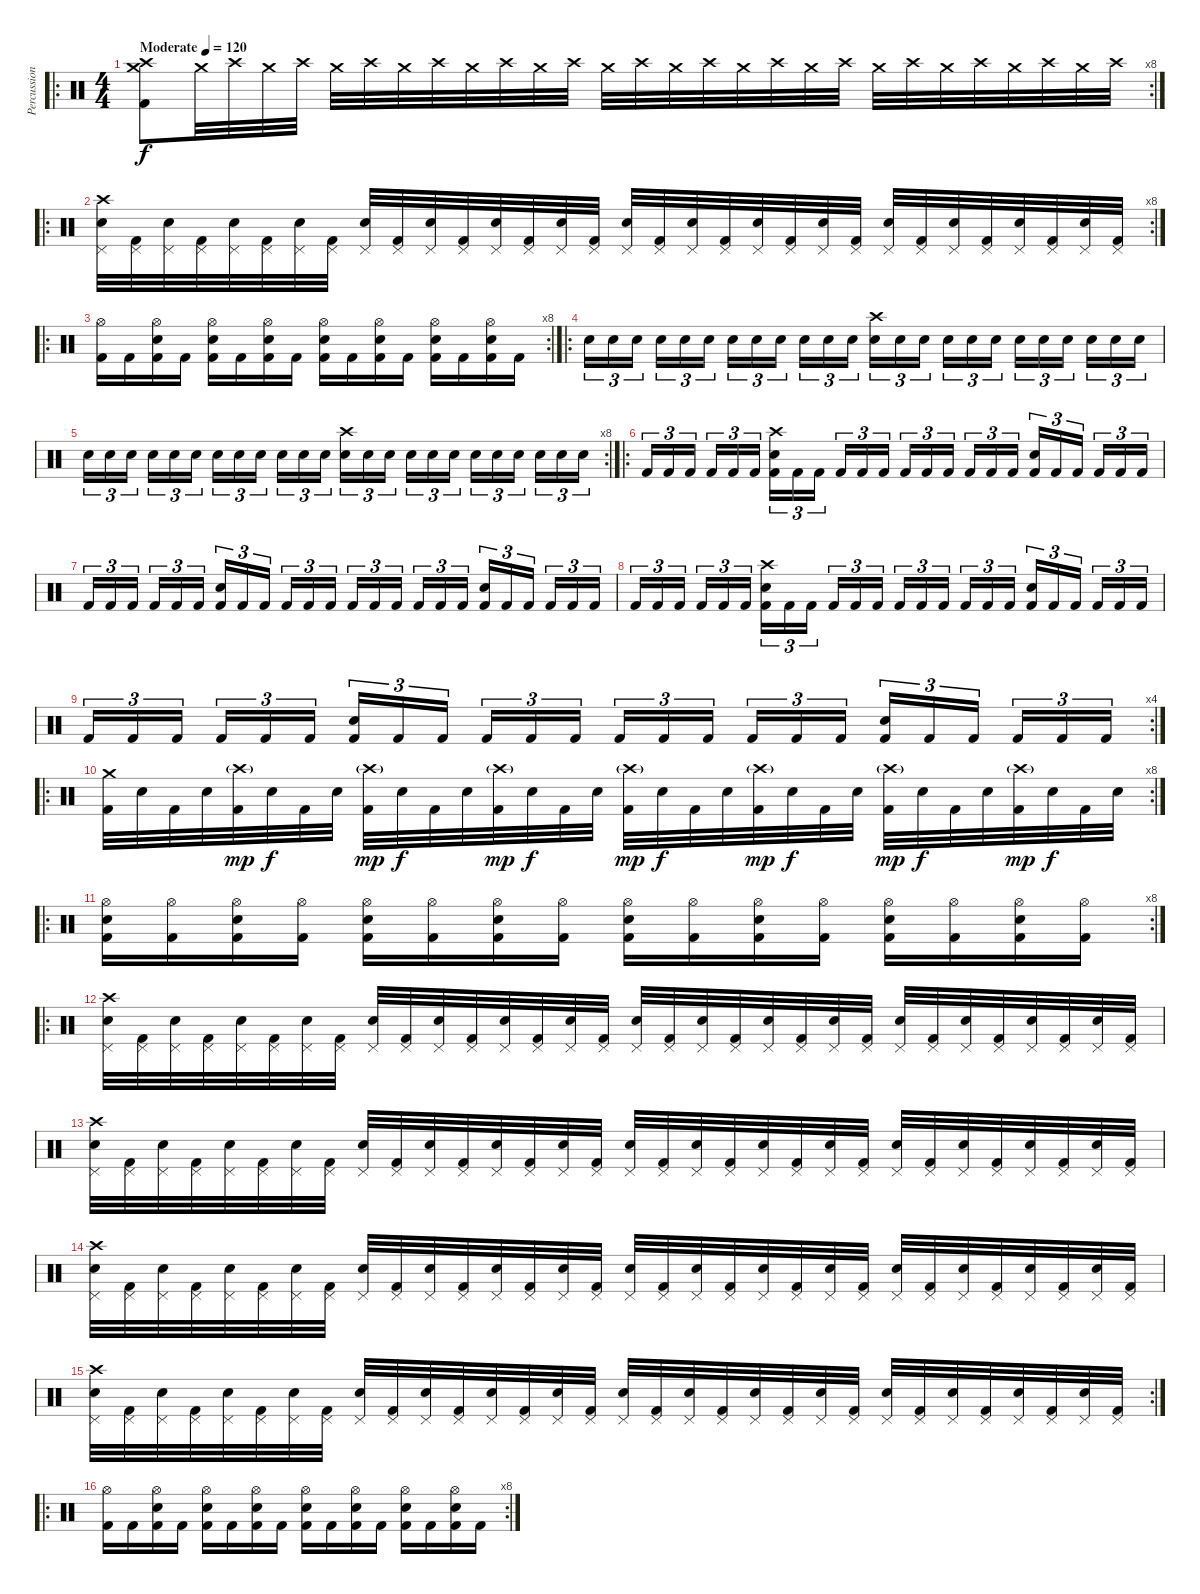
\track ("Percussions" "Percussion") {instrument percussion}
\staff {score}
\articulation defaults
\ro
\rc 8
\ts (4 4)
\tempo (120 "Moderate")
\clef neutral
\ks c
("Crash medium (hit)" "Crash high (hit)" "Kick (hit) 2").8{dy f} "Crash medium (hit)".32 "Crash high (hit)".32 "Crash medium (hit)".32 "Crash high (hit)".32 "Crash medium (hit)".32 "Crash high (hit)".32 "Crash medium (hit)".32 "Crash high (hit)".32 "Crash medium (hit)".32 "Crash high (hit)".32 "Crash medium (hit)".32 "Crash high (hit)".32 "Crash medium (hit)".32 "Crash high (hit)".32 "Crash medium (hit)".32 "Crash high (hit)".32 "Crash medium (hit)".32 "Crash high (hit)".32 "Crash medium (hit)".32 "Crash high (hit)".32 "Crash medium (hit)".32 "Crash high (hit)".32 "Crash medium (hit)".32 "Crash high (hit)".32 "Crash medium (hit)".32 "Crash high (hit)".32 "Crash medium (hit)".32 "Crash high (hit)".32 |
\ro
\rc 8
("Pedal Hi-Hat (hit)" "Crash high (hit)" "Electric Snare (hit)").32 ("Pedal Hi-Hat (hit)" "Kick (hit) 2").32 ("Pedal Hi-Hat (hit)" "Electric Snare (hit)").32 ("Pedal Hi-Hat (hit)" "Kick (hit) 2").32 ("Pedal Hi-Hat (hit)" "Electric Snare (hit)").32 ("Pedal Hi-Hat (hit)" "Kick (hit) 2").32 ("Pedal Hi-Hat (hit)" "Electric Snare (hit)").32 ("Pedal Hi-Hat (hit)" "Kick (hit) 2").32 ("Pedal Hi-Hat (hit)" "Electric Snare (hit)").32 ("Pedal Hi-Hat (hit)" "Kick (hit) 2").32 ("Pedal Hi-Hat (hit)" "Electric Snare (hit)").32 ("Pedal Hi-Hat (hit)" "Kick (hit) 2").32 ("Pedal Hi-Hat (hit)" "Electric Snare (hit)").32 ("Pedal Hi-Hat (hit)" "Kick (hit) 2").32 ("Pedal Hi-Hat (hit)" "Electric Snare (hit)").32 ("Pedal Hi-Hat (hit)" "Kick (hit) 2").32 ("Pedal Hi-Hat (hit)" "Electric Snare (hit)").32 ("Pedal Hi-Hat (hit)" "Kick (hit) 2").32 ("Pedal Hi-Hat (hit)" "Electric Snare (hit)").32 ("Pedal Hi-Hat (hit)" "Kick (hit) 2").32 ("Pedal Hi-Hat (hit)" "Electric Snare (hit)").32 ("Pedal Hi-Hat (hit)" "Kick (hit) 2").32 ("Pedal Hi-Hat (hit)" "Electric Snare (hit)").32 ("Pedal Hi-Hat (hit)" "Kick (hit) 2").32 ("Pedal Hi-Hat (hit)" "Electric Snare (hit)").32 ("Pedal Hi-Hat (hit)" "Kick (hit) 2").32 ("Pedal Hi-Hat (hit)" "Electric Snare (hit)").32 ("Pedal Hi-Hat (hit)" "Kick (hit) 2").32 ("Pedal Hi-Hat (hit)" "Electric Snare (hit)").32 ("Pedal Hi-Hat (hit)" "Kick (hit) 2").32 ("Pedal Hi-Hat (hit)" "Electric Snare (hit)").32 ("Pedal Hi-Hat (hit)" "Kick (hit) 2").32 |
\ro
\rc 8
("Hi-Hat (open)" "Kick (hit) 2").16 "Kick (hit) 2".16 ("Hi-Hat (open)" "Electric Snare (hit)" "Kick (hit) 2").16 "Kick (hit) 2".16 ("Hi-Hat (open)" "Electric Snare (hit)" "Kick (hit) 2").16 "Kick (hit) 2".16 ("Hi-Hat (open)" "Electric Snare (hit)" "Kick (hit) 2").16 "Kick (hit) 2".16 ("Hi-Hat (open)" "Electric Snare (hit)" "Kick (hit) 2").16 "Kick (hit) 2".16 ("Hi-Hat (open)" "Electric Snare (hit)" "Kick (hit) 2").16 "Kick (hit) 2".16 ("Hi-Hat (open)" "Electric Snare (hit)" "Kick (hit) 2").16 "Kick (hit) 2".16 ("Hi-Hat (open)" "Electric Snare (hit)" "Kick (hit) 2").16 "Kick (hit) 2".16 |
\ro "Electric Snare (hit)".16{tu (3 2)} "Snare (hit) 2".16{tu (3 2)} "Electric Snare (hit)".16{tu (3 2) beam splitsecondary} "Snare (hit) 2".16{tu (3 2)} "Electric Snare (hit)".16{tu (3 2)} "Snare (hit) 2".16{tu (3 2)} "Electric Snare (hit)".16{tu (3 2)} "Snare (hit) 2".16{tu (3 2)} "Electric Snare (hit)".16{tu (3 2) beam splitsecondary} "Snare (hit) 2".16{tu (3 2)} "Electric Snare (hit)".16{tu (3 2)} "Snare (hit) 2".16{tu (3 2)}
("Crash high (hit)" "Electric Snare (hit)").16{tu (3 2)} "Snare (hit) 2".16{tu (3 2)} "Electric Snare (hit)".16{tu (3 2) beam splitsecondary} "Snare (hit) 2".16{tu (3 2)} "Electric Snare (hit)".16{tu (3 2)} "Snare (hit) 2".16{tu (3 2)} "Electric Snare (hit)".16{tu (3 2)} "Snare (hit) 2".16{tu (3 2)} "Electric Snare (hit)".16{tu (3 2) beam splitsecondary} "Snare (hit) 2".16{tu (3 2)} "Electric Snare (hit)".16{tu (3 2)} "Snare (hit) 2".16{tu (3 2)} |
\rc 8 "Electric Snare (hit)".16{tu (3 2)} "Snare (hit) 2".16{tu (3 2)} "Electric Snare (hit)".16{tu (3 2) beam splitsecondary} "Snare (hit) 2".16{tu (3 2)} "Electric Snare (hit)".16{tu (3 2)} "Snare (hit) 2".16{tu (3 2)} "Electric Snare (hit)".16{tu (3 2)} "Snare (hit) 2".16{tu (3 2)} "Electric Snare (hit)".16{tu (3 2) beam splitsecondary} "Snare (hit) 2".16{tu (3 2)} "Electric Snare (hit)".16{tu (3 2)} "Snare (hit) 2".16{tu (3 2)}
("Crash high (hit)" "Electric Snare (hit)").16{tu (3 2)} "Snare (hit) 2".16{tu (3 2)} "Electric Snare (hit)".16{tu (3 2) beam splitsecondary} "Snare (hit) 2".16{tu (3 2)} "Electric Snare (hit)".16{tu (3 2)} "Snare (hit) 2".16{tu (3 2)} "Electric Snare (hit)".16{tu (3 2)} "Snare (hit) 2".16{tu (3 2)} "Electric Snare (hit)".16{tu (3 2) beam splitsecondary} "Snare (hit) 2".16{tu (3 2)} "Electric Snare (hit)".16{tu (3 2)} "Snare (hit) 2".16{tu (3 2)} |
\ro "Kick (hit) 2".16{tu (3 2)} "Kick (hit) 2".16{tu (3 2)} "Kick (hit) 2".16{tu (3 2) beam splitsecondary} "Kick (hit) 2".16{tu (3 2)} "Kick (hit) 2".16{tu (3 2)} "Kick (hit) 2".16{tu (3 2)}
("Snare (hit) 2" "Crash high (hit)" "Kick (hit) 2").16{tu (3 2)} "Kick (hit) 2".16{tu (3 2)} "Kick (hit) 2".16{tu (3 2) beam splitsecondary} "Kick (hit) 2".16{tu (3 2)} "Kick (hit) 2".16{tu (3 2)} "Kick (hit) 2".16{tu (3 2)} "Kick (hit) 2".16{tu (3 2)} "Kick (hit) 2".16{tu (3 2)} "Kick (hit) 2".16{tu (3 2) beam splitsecondary} "Kick (hit) 2".16{tu (3 2)} "Kick (hit) 2".16{tu (3 2)} "Kick (hit) 2".16{tu (3 2)} ("Snare (hit) 2" "Kick (hit) 2").16{tu (3 2)} "Kick (hit) 2".16{tu (3 2)} "Kick (hit) 2".16{tu (3 2) beam splitsecondary} "Kick (hit) 2".16{tu (3 2)} "Kick (hit) 2".16{tu (3 2)} "Kick (hit) 2".16{tu (3 2)} |
"Kick (hit) 2".16{tu (3 2)} "Kick (hit) 2".16{tu (3 2)} "Kick (hit) 2".16{tu (3 2) beam splitsecondary} "Kick (hit) 2".16{tu (3 2)} "Kick (hit) 2".16{tu (3 2)} "Kick (hit) 2".16{tu (3 2)} ("Snare (hit) 2" "Kick (hit) 2").16{tu (3 2)} "Kick (hit) 2".16{tu (3 2)} "Kick (hit) 2".16{tu (3 2) beam splitsecondary} "Kick (hit) 2".16{tu (3 2)} "Kick (hit) 2".16{tu (3 2)} "Kick (hit) 2".16{tu (3 2)} "Kick (hit) 2".16{tu (3 2)} "Kick (hit) 2".16{tu (3 2)} "Kick (hit) 2".16{tu (3 2) beam splitsecondary} "Kick (hit) 2".16{tu (3 2)} "Kick (hit) 2".16{tu (3 2)} "Kick (hit) 2".16{tu (3 2)} ("Snare (hit) 2" "Kick (hit) 2").16{tu (3 2)} "Kick (hit) 2".16{tu (3 2)} "Kick (hit) 2".16{tu (3 2) beam splitsecondary} "Kick (hit) 2".16{tu (3 2)} "Kick (hit) 2".16{tu (3 2)} "Kick (hit) 2".16{tu (3 2)} |
"Kick (hit) 2".16{tu (3 2)} "Kick (hit) 2".16{tu (3 2)} "Kick (hit) 2".16{tu (3 2) beam splitsecondary} "Kick (hit) 2".16{tu (3 2)} "Kick (hit) 2".16{tu (3 2)} "Kick (hit) 2".16{tu (3 2)} ("Snare (hit) 2" "Crash high (hit)" "Kick (hit) 2").16{tu (3 2)} "Kick (hit) 2".16{tu (3 2)} "Kick (hit) 2".16{tu (3 2) beam splitsecondary} "Kick (hit) 2".16{tu (3 2)} "Kick (hit) 2".16{tu (3 2)} "Kick (hit) 2".16{tu (3 2)} "Kick (hit) 2".16{tu (3 2)} "Kick (hit) 2".16{tu (3 2)} "Kick (hit) 2".16{tu (3 2) beam splitsecondary} "Kick (hit) 2".16{tu (3 2)} "Kick (hit) 2".16{tu (3 2)} "Kick (hit) 2".16{tu (3 2)} ("Snare (hit) 2" "Kick (hit) 2").16{tu (3 2)} "Kick (hit) 2".16{tu (3 2)} "Kick (hit) 2".16{tu (3 2) beam splitsecondary} "Kick (hit) 2".16{tu (3 2)} "Kick (hit) 2".16{tu (3 2)} "Kick (hit) 2".16{tu (3 2)} |
\rc 4 "Kick (hit) 2".16{tu (3 2)} "Kick (hit) 2".16{tu (3 2)} "Kick (hit) 2".16{tu (3 2) beam splitsecondary} "Kick (hit) 2".16{tu (3 2)} "Kick (hit) 2".16{tu (3 2)} "Kick (hit) 2".16{tu (3 2)}
("Snare (hit) 2" "Kick (hit) 2").16{tu (3 2)} "Kick (hit) 2".16{tu (3 2)} "Kick (hit) 2".16{tu (3 2) beam splitsecondary} "Kick (hit) 2".16{tu (3 2)} "Kick (hit) 2".16{tu (3 2)} "Kick (hit) 2".16{tu (3 2)} "Kick (hit) 2".16{tu (3 2)} "Kick (hit) 2".16{tu (3 2)} "Kick (hit) 2".16{tu (3 2) beam splitsecondary} "Kick (hit) 2".16{tu (3 2)} "Kick (hit) 2".16{tu (3 2)} "Kick (hit) 2".16{tu (3 2)} ("Snare (hit) 2" "Kick (hit) 2").16{tu (3 2)} "Kick (hit) 2".16{tu (3 2)} "Kick (hit) 2".16{tu (3 2) beam splitsecondary} "Kick (hit) 2".16{tu (3 2)} "Kick (hit) 2".16{tu (3 2)} "Kick (hit) 2".16{tu (3 2)} |
\ro
\rc 8
("Crash medium (hit)" "Kick (hit) 2").32 "Electric Snare (hit)".32 "Kick (hit) 2".32 "Electric Snare (hit)".32 ("Crash high (hit)"{g} "Kick (hit) 2").32{dy mp} "Electric Snare (hit)".32{dy f} "Kick (hit) 2".32 "Electric Snare (hit)".32 ("Crash high (hit)"{g} "Kick (hit) 2").32{dy mp} "Electric Snare (hit)".32{dy f} "Kick (hit) 2".32 "Electric Snare (hit)".32 ("Crash high (hit)"{g} "Kick (hit) 2").32{dy mp} "Electric Snare (hit)".32{dy f} "Kick (hit) 2".32 "Electric Snare (hit)".32 ("Crash high (hit)"{g} "Kick (hit) 2").32{dy mp} "Electric Snare (hit)".32{dy f} "Kick (hit) 2".32 "Electric Snare (hit)".32 ("Crash high (hit)"{g} "Kick (hit) 2").32{dy mp} "Electric Snare (hit)".32{dy f} "Kick (hit) 2".32 "Electric Snare (hit)".32 ("Crash high (hit)"{g} "Kick (hit) 2").32{dy mp} "Electric Snare (hit)".32{dy f} "Kick (hit) 2".32 "Electric Snare (hit)".32 ("Crash high (hit)"{g} "Kick (hit) 2").32{dy mp} "Electric Snare (hit)".32{dy f} "Kick (hit) 2".32 "Electric Snare (hit)".32 |
\ro
\rc 8
("Hi-Hat (open)" "Snare (hit) 2" "Kick (hit) 2").16 ("Hi-Hat (open)" "Kick (hit) 2").16 ("Hi-Hat (open)" "Snare (hit) 2" "Kick (hit) 2").16 ("Hi-Hat (open)" "Kick (hit) 2").16 ("Hi-Hat (open)" "Snare (hit) 2" "Kick (hit) 2").16 ("Hi-Hat (open)" "Kick (hit) 2").16 ("Hi-Hat (open)" "Snare (hit) 2" "Kick (hit) 2").16 ("Hi-Hat (open)" "Kick (hit) 2").16 ("Hi-Hat (open)" "Snare (hit) 2" "Kick (hit) 2").16 ("Hi-Hat (open)" "Kick (hit) 2").16 ("Hi-Hat (open)" "Snare (hit) 2" "Kick (hit) 2").16 ("Hi-Hat (open)" "Kick (hit) 2").16 ("Hi-Hat (open)" "Snare (hit) 2" "Kick (hit) 2").16 ("Hi-Hat (open)" "Kick (hit) 2").16 ("Hi-Hat (open)" "Snare (hit) 2" "Kick (hit) 2").16 ("Hi-Hat (open)" "Kick (hit) 2").16 |
\ro
("Pedal Hi-Hat (hit)" "Crash high (hit)" "Electric Snare (hit)").32 ("Pedal Hi-Hat (hit)" "Kick (hit) 2").32 ("Pedal Hi-Hat (hit)" "Electric Snare (hit)").32 ("Pedal Hi-Hat (hit)" "Kick (hit) 2").32 ("Pedal Hi-Hat (hit)" "Electric Snare (hit)").32 ("Pedal Hi-Hat (hit)" "Kick (hit) 2").32 ("Pedal Hi-Hat (hit)" "Electric Snare (hit)").32 ("Pedal Hi-Hat (hit)" "Kick (hit) 2").32 ("Pedal Hi-Hat (hit)" "Electric Snare (hit)").32 ("Pedal Hi-Hat (hit)" "Kick (hit) 2").32 ("Pedal Hi-Hat (hit)" "Electric Snare (hit)").32 ("Pedal Hi-Hat (hit)" "Kick (hit) 2").32 ("Pedal Hi-Hat (hit)" "Electric Snare (hit)").32 ("Pedal Hi-Hat (hit)" "Kick (hit) 2").32 ("Pedal Hi-Hat (hit)" "Electric Snare (hit)").32 ("Pedal Hi-Hat (hit)" "Kick (hit) 2").32 ("Pedal Hi-Hat (hit)" "Electric Snare (hit)").32 ("Pedal Hi-Hat (hit)" "Kick (hit) 2").32 ("Pedal Hi-Hat (hit)" "Electric Snare (hit)").32 ("Pedal Hi-Hat (hit)" "Kick (hit) 2").32 ("Pedal Hi-Hat (hit)" "Electric Snare (hit)").32 ("Pedal Hi-Hat (hit)" "Kick (hit) 2").32 ("Pedal Hi-Hat (hit)" "Electric Snare (hit)").32 ("Pedal Hi-Hat (hit)" "Kick (hit) 2").32 ("Pedal Hi-Hat (hit)" "Electric Snare (hit)").32 ("Pedal Hi-Hat (hit)" "Kick (hit) 2").32 ("Pedal Hi-Hat (hit)" "Electric Snare (hit)").32 ("Pedal Hi-Hat (hit)" "Kick (hit) 2").32 ("Pedal Hi-Hat (hit)" "Electric Snare (hit)").32 ("Pedal Hi-Hat (hit)" "Kick (hit) 2").32 ("Pedal Hi-Hat (hit)" "Electric Snare (hit)").32 ("Pedal Hi-Hat (hit)" "Kick (hit) 2").32 |
("Pedal Hi-Hat (hit)" "Crash high (hit)" "Electric Snare (hit)").32 ("Pedal Hi-Hat (hit)" "Kick (hit) 2").32 ("Pedal Hi-Hat (hit)" "Electric Snare (hit)").32 ("Pedal Hi-Hat (hit)" "Kick (hit) 2").32 ("Pedal Hi-Hat (hit)" "Electric Snare (hit)").32 ("Pedal Hi-Hat (hit)" "Kick (hit) 2").32 ("Pedal Hi-Hat (hit)" "Electric Snare (hit)").32 ("Pedal Hi-Hat (hit)" "Kick (hit) 2").32 ("Pedal Hi-Hat (hit)" "Electric Snare (hit)").32 ("Pedal Hi-Hat (hit)" "Kick (hit) 2").32 ("Pedal Hi-Hat (hit)" "Electric Snare (hit)").32 ("Pedal Hi-Hat (hit)" "Kick (hit) 2").32 ("Pedal Hi-Hat (hit)" "Electric Snare (hit)").32 ("Pedal Hi-Hat (hit)" "Kick (hit) 2").32 ("Pedal Hi-Hat (hit)" "Electric Snare (hit)").32 ("Pedal Hi-Hat (hit)" "Kick (hit) 2").32 ("Pedal Hi-Hat (hit)" "Electric Snare (hit)").32 ("Pedal Hi-Hat (hit)" "Kick (hit) 2").32 ("Pedal Hi-Hat (hit)" "Electric Snare (hit)").32 ("Pedal Hi-Hat (hit)" "Kick (hit) 2").32 ("Pedal Hi-Hat (hit)" "Electric Snare (hit)").32 ("Pedal Hi-Hat (hit)" "Kick (hit) 2").32 ("Pedal Hi-Hat (hit)" "Electric Snare (hit)").32 ("Pedal Hi-Hat (hit)" "Kick (hit) 2").32 ("Pedal Hi-Hat (hit)" "Electric Snare (hit)").32 ("Pedal Hi-Hat (hit)" "Kick (hit) 2").32 ("Pedal Hi-Hat (hit)" "Electric Snare (hit)").32 ("Pedal Hi-Hat (hit)" "Kick (hit) 2").32 ("Pedal Hi-Hat (hit)" "Electric Snare (hit)").32 ("Pedal Hi-Hat (hit)" "Kick (hit) 2").32 ("Pedal Hi-Hat (hit)" "Electric Snare (hit)").32 ("Pedal Hi-Hat (hit)" "Kick (hit) 2").32 |
("Pedal Hi-Hat (hit)" "Crash high (hit)" "Electric Snare (hit)").32 ("Pedal Hi-Hat (hit)" "Kick (hit) 2").32 ("Pedal Hi-Hat (hit)" "Electric Snare (hit)").32 ("Pedal Hi-Hat (hit)" "Kick (hit) 2").32 ("Pedal Hi-Hat (hit)" "Electric Snare (hit)").32 ("Pedal Hi-Hat (hit)" "Kick (hit) 2").32 ("Pedal Hi-Hat (hit)" "Electric Snare (hit)").32 ("Pedal Hi-Hat (hit)" "Kick (hit) 2").32 ("Pedal Hi-Hat (hit)" "Electric Snare (hit)").32 ("Pedal Hi-Hat (hit)" "Kick (hit) 2").32 ("Pedal Hi-Hat (hit)" "Electric Snare (hit)").32 ("Pedal Hi-Hat (hit)" "Kick (hit) 2").32 ("Pedal Hi-Hat (hit)" "Electric Snare (hit)").32 ("Pedal Hi-Hat (hit)" "Kick (hit) 2").32 ("Pedal Hi-Hat (hit)" "Electric Snare (hit)").32 ("Pedal Hi-Hat (hit)" "Kick (hit) 2").32 ("Pedal Hi-Hat (hit)" "Electric Snare (hit)").32 ("Pedal Hi-Hat (hit)" "Kick (hit) 2").32 ("Pedal Hi-Hat (hit)" "Electric Snare (hit)").32 ("Pedal Hi-Hat (hit)" "Kick (hit) 2").32 ("Pedal Hi-Hat (hit)" "Electric Snare (hit)").32 ("Pedal Hi-Hat (hit)" "Kick (hit) 2").32 ("Pedal Hi-Hat (hit)" "Electric Snare (hit)").32 ("Pedal Hi-Hat (hit)" "Kick (hit) 2").32 ("Pedal Hi-Hat (hit)" "Electric Snare (hit)").32 ("Pedal Hi-Hat (hit)" "Kick (hit) 2").32 ("Pedal Hi-Hat (hit)" "Electric Snare (hit)").32 ("Pedal Hi-Hat (hit)" "Kick (hit) 2").32 ("Pedal Hi-Hat (hit)" "Electric Snare (hit)").32 ("Pedal Hi-Hat (hit)" "Kick (hit) 2").32 ("Pedal Hi-Hat (hit)" "Electric Snare (hit)").32 ("Pedal Hi-Hat (hit)" "Kick (hit) 2").32 |
\rc 2
("Pedal Hi-Hat (hit)" "Crash high (hit)" "Electric Snare (hit)").32 ("Pedal Hi-Hat (hit)" "Kick (hit) 2").32 ("Pedal Hi-Hat (hit)" "Electric Snare (hit)").32 ("Pedal Hi-Hat (hit)" "Kick (hit) 2").32 ("Pedal Hi-Hat (hit)" "Electric Snare (hit)").32 ("Pedal Hi-Hat (hit)" "Kick (hit) 2").32 ("Pedal Hi-Hat (hit)" "Electric Snare (hit)").32 ("Pedal Hi-Hat (hit)" "Kick (hit) 2").32 ("Pedal Hi-Hat (hit)" "Electric Snare (hit)").32 ("Pedal Hi-Hat (hit)" "Kick (hit) 2").32 ("Pedal Hi-Hat (hit)" "Electric Snare (hit)").32 ("Pedal Hi-Hat (hit)" "Kick (hit) 2").32 ("Pedal Hi-Hat (hit)" "Electric Snare (hit)").32 ("Pedal Hi-Hat (hit)" "Kick (hit) 2").32 ("Pedal Hi-Hat (hit)" "Electric Snare (hit)").32 ("Pedal Hi-Hat (hit)" "Kick (hit) 2").32 ("Pedal Hi-Hat (hit)" "Electric Snare (hit)").32 ("Pedal Hi-Hat (hit)" "Kick (hit) 2").32 ("Pedal Hi-Hat (hit)" "Electric Snare (hit)").32 ("Pedal Hi-Hat (hit)" "Kick (hit) 2").32 ("Pedal Hi-Hat (hit)" "Electric Snare (hit)").32 ("Pedal Hi-Hat (hit)" "Kick (hit) 2").32 ("Pedal Hi-Hat (hit)" "Electric Snare (hit)").32 ("Pedal Hi-Hat (hit)" "Kick (hit) 2").32 ("Pedal Hi-Hat (hit)" "Electric Snare (hit)").32 ("Pedal Hi-Hat (hit)" "Kick (hit) 2").32 ("Pedal Hi-Hat (hit)" "Electric Snare (hit)").32 ("Pedal Hi-Hat (hit)" "Kick (hit) 2").32 ("Pedal Hi-Hat (hit)" "Electric Snare (hit)").32 ("Pedal Hi-Hat (hit)" "Kick (hit) 2").32 ("Pedal Hi-Hat (hit)" "Electric Snare (hit)").32 ("Pedal Hi-Hat (hit)" "Kick (hit) 2").32 |
\ro
\rc 8
("Hi-Hat (open)" "Kick (hit) 2").16 "Kick (hit) 2".16 ("Hi-Hat (open)" "Electric Snare (hit)" "Kick (hit) 2").16 "Kick (hit) 2".16 ("Hi-Hat (open)" "Electric Snare (hit)" "Kick (hit) 2").16 "Kick (hit) 2".16 ("Hi-Hat (open)" "Electric Snare (hit)" "Kick (hit) 2").16 "Kick (hit) 2".16 ("Hi-Hat (open)" "Electric Snare (hit)" "Kick (hit) 2").16 "Kick (hit) 2".16 ("Hi-Hat (open)" "Electric Snare (hit)" "Kick (hit) 2").16 "Kick (hit) 2".16 ("Hi-Hat (open)" "Electric Snare (hit)" "Kick (hit) 2").16 "Kick (hit) 2".16 ("Hi-Hat (open)" "Electric Snare (hit)" "Kick (hit) 2").16 "Kick (hit) 2".16
